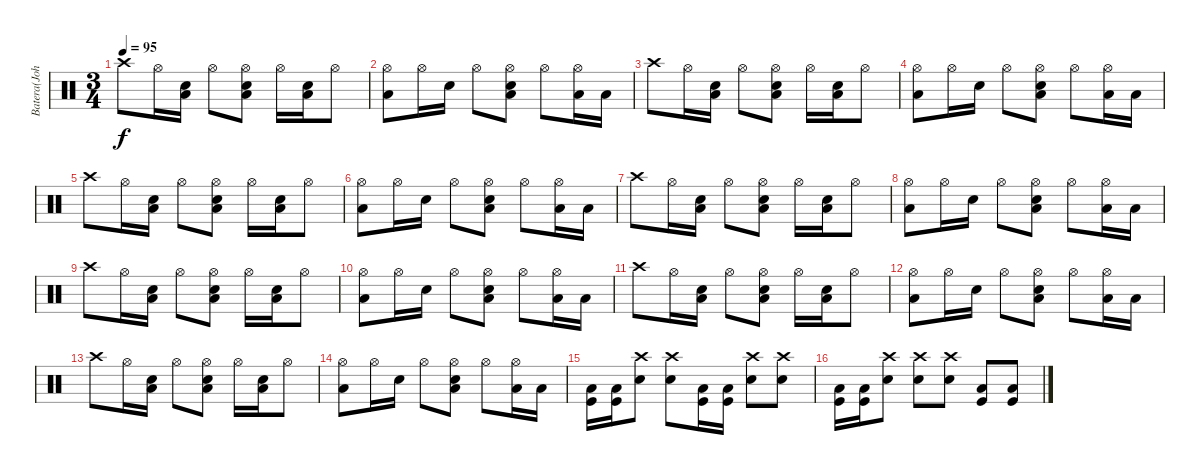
\track ("Batera(John)" "Batera(Joh") {instrument percussion}
\staff {score}
\articulation defaults
\ts (3 4)
\tempo 95
\clef neutral
\ks c "Crash high (hit)".8{dy f} "Hi-Hat (open)".16
("Snare (hit) 2" "Low Tom (hit)").16 "Hi-Hat (open)".8 ("Hi-Hat (open)" "Snare (hit) 2" "Low Tom (hit)").8 "Hi-Hat (open)".16 ("Snare (hit) 2" "Low Tom (hit)").16 "Hi-Hat (open)".8 |
("Hi-Hat (open)" "Low Tom (hit)").8 "Hi-Hat (open)".16 "Snare (hit) 2".16 "Hi-Hat (open)".8 ("Hi-Hat (open)" "Snare (hit) 2" "Low Tom (hit)").8 "Hi-Hat (open)".8 ("Hi-Hat (open)" "Low Tom (hit)").16 "Low Tom (hit)".16 |
"Crash high (hit)".8 "Hi-Hat (open)".16 ("Snare (hit) 2" "Low Tom (hit)").16 "Hi-Hat (open)".8 ("Hi-Hat (open)" "Snare (hit) 2" "Low Tom (hit)").8 "Hi-Hat (open)".16 ("Snare (hit) 2" "Low Tom (hit)").16 "Hi-Hat (open)".8 |
("Hi-Hat (open)" "Low Tom (hit)").8 "Hi-Hat (open)".16 "Snare (hit) 2".16 "Hi-Hat (open)".8 ("Hi-Hat (open)" "Snare (hit) 2" "Low Tom (hit)").8 "Hi-Hat (open)".8 ("Hi-Hat (open)" "Low Tom (hit)").16 "Low Tom (hit)".16 |
"Crash high (hit)".8 "Hi-Hat (open)".16 ("Snare (hit) 2" "Low Tom (hit)").16 "Hi-Hat (open)".8 ("Hi-Hat (open)" "Snare (hit) 2" "Low Tom (hit)").8 "Hi-Hat (open)".16 ("Snare (hit) 2" "Low Tom (hit)").16 "Hi-Hat (open)".8 |
("Hi-Hat (open)" "Low Tom (hit)").8 "Hi-Hat (open)".16 "Snare (hit) 2".16 "Hi-Hat (open)".8 ("Hi-Hat (open)" "Snare (hit) 2" "Low Tom (hit)").8 "Hi-Hat (open)".8 ("Hi-Hat (open)" "Low Tom (hit)").16 "Low Tom (hit)".16 |
"Crash high (hit)".8 "Hi-Hat (open)".16 ("Snare (hit) 2" "Low Tom (hit)").16 "Hi-Hat (open)".8 ("Hi-Hat (open)" "Snare (hit) 2" "Low Tom (hit)").8 "Hi-Hat (open)".16 ("Snare (hit) 2" "Low Tom (hit)").16 "Hi-Hat (open)".8 |
("Hi-Hat (open)" "Low Tom (hit)").8 "Hi-Hat (open)".16 "Snare (hit) 2".16 "Hi-Hat (open)".8 ("Hi-Hat (open)" "Snare (hit) 2" "Low Tom (hit)").8 "Hi-Hat (open)".8 ("Hi-Hat (open)" "Low Tom (hit)").16 "Low Tom (hit)".16 |
"Crash high (hit)".8 "Hi-Hat (open)".16 ("Snare (hit) 2" "Low Tom (hit)").16 "Hi-Hat (open)".8 ("Hi-Hat (open)" "Snare (hit) 2" "Low Tom (hit)").8 "Hi-Hat (open)".16 ("Snare (hit) 2" "Low Tom (hit)").16 "Hi-Hat (open)".8 |
("Hi-Hat (open)" "Low Tom (hit)").8 "Hi-Hat (open)".16 "Snare (hit) 2".16 "Hi-Hat (open)".8 ("Hi-Hat (open)" "Snare (hit) 2" "Low Tom (hit)").8 "Hi-Hat (open)".8 ("Hi-Hat (open)" "Low Tom (hit)").16 "Low Tom (hit)".16 |
"Crash high (hit)".8 "Hi-Hat (open)".16 ("Snare (hit) 2" "Low Tom (hit)").16 "Hi-Hat (open)".8 ("Hi-Hat (open)" "Snare (hit) 2" "Low Tom (hit)").8 "Hi-Hat (open)".16 ("Snare (hit) 2" "Low Tom (hit)").16 "Hi-Hat (open)".8 |
("Hi-Hat (open)" "Low Tom (hit)").8 "Hi-Hat (open)".16 "Snare (hit) 2".16 "Hi-Hat (open)".8 ("Hi-Hat (open)" "Snare (hit) 2" "Low Tom (hit)").8 "Hi-Hat (open)".8 ("Hi-Hat (open)" "Low Tom (hit)").16 "Low Tom (hit)".16 |
"Crash high (hit)".8 "Hi-Hat (open)".16 ("Snare (hit) 2" "Low Tom (hit)").16 "Hi-Hat (open)".8 ("Hi-Hat (open)" "Snare (hit) 2" "Low Tom (hit)").8 "Hi-Hat (open)".16 ("Snare (hit) 2" "Low Tom (hit)").16 "Hi-Hat (open)".8 |
("Hi-Hat (open)" "Low Tom (hit)").8 "Hi-Hat (open)".16 "Snare (hit) 2".16 "Hi-Hat (open)".8 ("Hi-Hat (open)" "Snare (hit) 2" "Low Tom (hit)").8 "Hi-Hat (open)".8 ("Hi-Hat (open)" "Low Tom (hit)").16 "Low Tom (hit)".16 |
("Kick (hit)" "Low Tom (hit)").16 ("Kick (hit)" "Low Tom (hit)").16 ("Crash high (hit)" "Snare (hit) 2").8 ("Crash high (hit)" "Snare (hit) 2").8 ("Kick (hit)" "Low Tom (hit)").16 ("Kick (hit)" "Low Tom (hit)").16 ("Crash high (hit)" "Snare (hit) 2").8 ("Crash high (hit)" "Snare (hit) 2").8 |
("Kick (hit)" "Low Tom (hit)").16 ("Kick (hit)" "Low Tom (hit)").16 ("Crash high (hit)" "Snare (hit) 2").8 ("Crash high (hit)" "Snare (hit) 2").8 ("Crash high (hit)" "Snare (hit) 2").8 ("Kick (hit)" "Low Tom (hit)").8 ("Kick (hit)" "Low Tom (hit)").8
